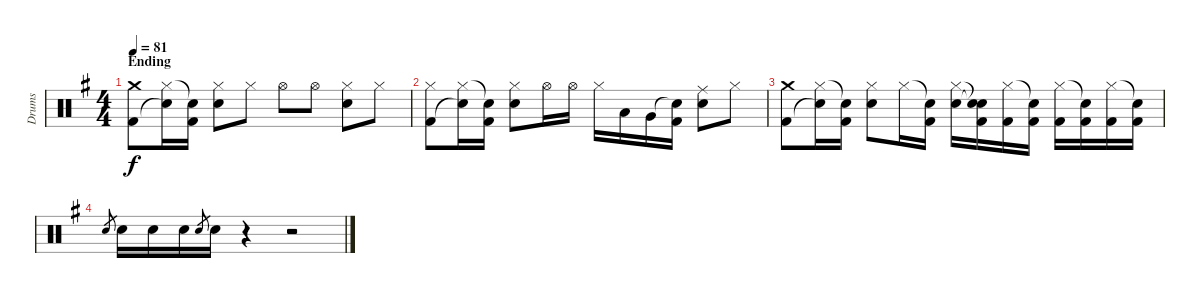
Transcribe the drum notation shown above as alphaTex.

\track ("Drums" "Drums") {instrument percussion}
\staff {score}
\articulation defaults
\ts (4 4)
\section ("" "Ending")
\tempo 81
\clef neutral
\ks g
("Crash medium (hit)" "Kick (hit) 2").8{dy f} ("Hi-Hat (closed)" "Snare (hit)"{t}).16 ("Snare (hit)"{t} "Kick (hit) 2").16 ("Hi-Hat (closed)" "Electric Snare (hit)").8 "Hi-Hat (closed)".8 "Hi-Hat (open)".8 "Hi-Hat (open)".8 ("Hi-Hat (closed)" "Electric Snare (hit)").8 "Hi-Hat (closed)".8 |
("Hi-Hat (closed)" "Kick (hit) 2").8 ("Hi-Hat (closed)" "Snare (hit)"{t}).16 ("Snare (hit)"{t} "Kick (hit) 2").16 ("Hi-Hat (closed)" "Electric Snare (hit)").8 "Hi-Hat (open)".16 "Hi-Hat (open)".16 "Hi-Hat (closed)".16 "Low Tom (hit)".16 "Very Low Tom (hit)".16 ("Snare (hit)"{t} "Kick (hit) 2").16 ("Ride (middle)" "Electric Snare (hit)").8 "Hi-Hat (closed)".8 |
("Crash medium (hit)" "Kick (hit) 2").8 ("Hi-Hat (closed)" "Snare (hit)"{t}).16 ("Snare (hit)"{t} "Kick (hit) 2").16 ("Hi-Hat (closed)" "Electric Snare (hit)").8 "Hi-Hat (closed)".16 ("Snare (hit)"{t} "Kick (hit) 2").16 ("Hi-Hat (closed)" "Electric Snare (hit)").16 ("Snare (hit)"{t} "Snare (hit)"{t} "Kick (hit) 2").16 ("Hi-Hat (closed)" "Kick (hit) 2").16 ("Snare (hit)"{t} "Kick (hit) 2").16 ("Hi-Hat (closed)" "Kick (hit) 2").16 ("Snare (hit)"{t} "Kick (hit) 2").16 ("Hi-Hat (closed)" "Kick (hit) 2").16 ("Snare (hit)"{t} "Kick (hit) 2").16 |
"Electric Snare (hit)".8{gr} "Electric Snare (hit)".16 "Electric Snare (hit)".16 "Electric Snare (hit)".16 "Electric Snare (hit)".8{gr} "Electric Snare (hit)".16 r.4 r.2
